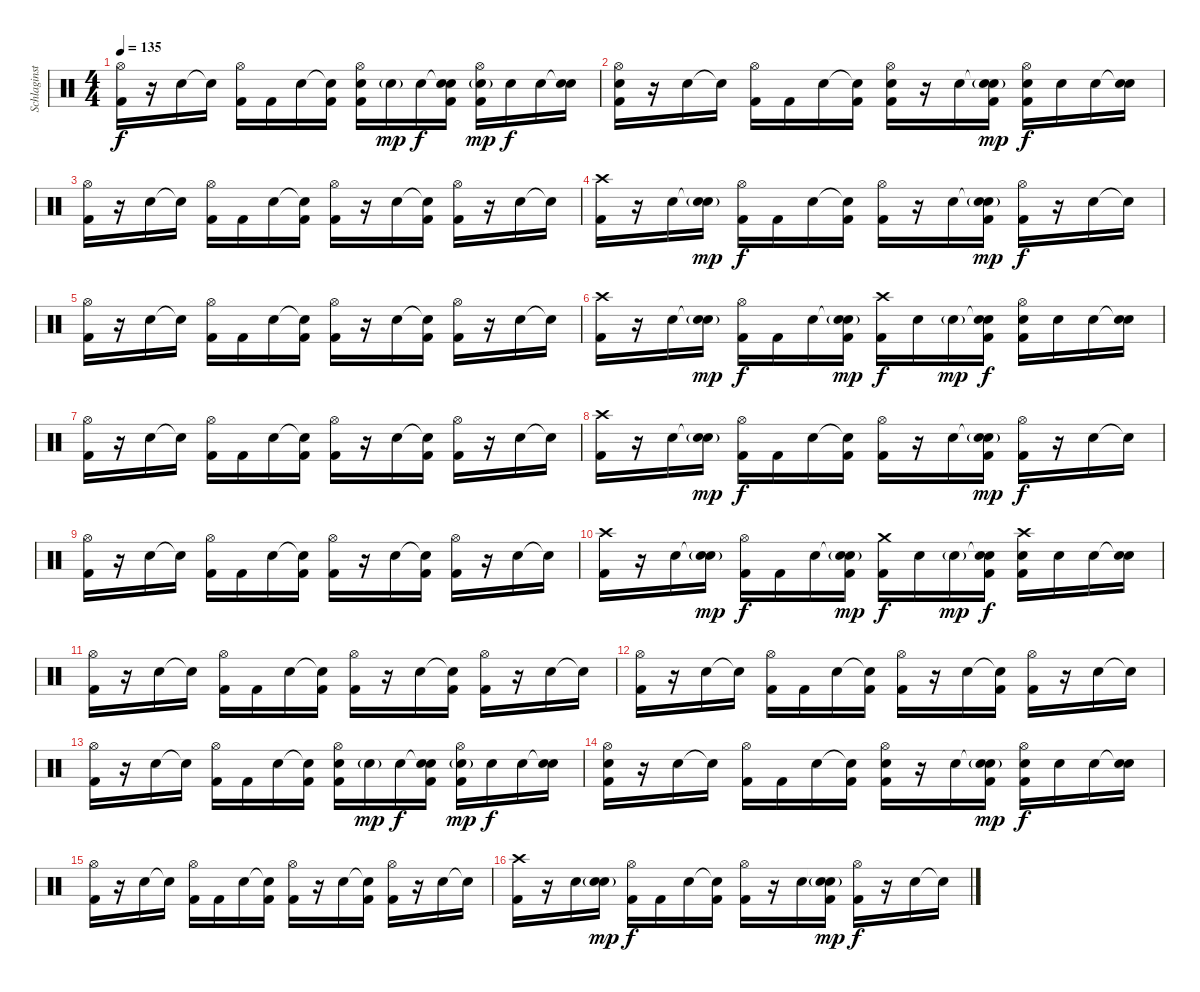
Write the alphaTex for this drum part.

\track ("Schlaginstrumente - Auswahl" "Schlaginst") {instrument percussion}
\staff {score}
\articulation defaults
\ts (4 4)
\tempo 135
\clef neutral
\ks c
("Hi-Hat (open)" "Kick (hit) 2").16{dy f} r.16 "Snare (hit) 2".16 "Snare (hit)"{t}.16 ("Hi-Hat (open)" "Kick (hit) 2").16 "Kick (hit) 2".16 "Snare (hit) 2".16 ("Snare (hit)"{t} "Kick (hit) 2").16 ("Hi-Hat (open)" "Snare (hit) 2" "Kick (hit) 2").16 "Snare (hit) 2"{g}.16{dy mp} "Snare (hit) 2".16{dy f} ("Snare (hit)"{t} "Snare (hit) 2" "Kick (hit) 2").16 ("Hi-Hat (open)" "Snare (hit) 2"{g} "Kick (hit) 2").16{dy mp} "Snare (hit) 2".16{dy f} "Snare (hit) 2".16 ("Snare (hit)"{t} "Snare (hit) 2").16 |
("Hi-Hat (open)" "Snare (hit) 2" "Kick (hit) 2").16 r.16 "Snare (hit) 2".16 "Snare (hit)"{t}.16 ("Hi-Hat (open)" "Kick (hit) 2").16 "Kick (hit) 2".16 "Snare (hit) 2".16 ("Snare (hit)"{t} "Kick (hit) 2").16 ("Hi-Hat (open)" "Snare (hit) 2" "Kick (hit) 2").16 r.16 "Snare (hit) 2".16 ("Snare (hit)"{t} "Snare (hit) 2"{g} "Kick (hit) 2").16{dy mp} ("Hi-Hat (open)" "Snare (hit) 2" "Kick (hit) 2").16{dy f} "Snare (hit) 2".16 "Snare (hit) 2".16 ("Snare (hit)"{t} "Snare (hit) 2").16 |
("Hi-Hat (open)" "Kick (hit) 2").16 r.16 "Snare (hit) 2".16 "Snare (hit)"{t}.16 ("Hi-Hat (open)" "Kick (hit) 2").16 "Kick (hit) 2".16 "Snare (hit) 2".16 ("Snare (hit)"{t} "Kick (hit) 2").16 ("Hi-Hat (open)" "Kick (hit) 2").16 r.16 "Snare (hit) 2".16 ("Snare (hit)"{t} "Kick (hit) 2").16 ("Hi-Hat (open)" "Kick (hit) 2").16 r.16 "Snare (hit) 2".16 "Snare (hit)"{t}.16 |
("Crash high (hit)" "Kick (hit) 2").16 r.16 "Snare (hit) 2".16 ("Snare (hit)"{t} "Snare (hit) 2"{g}).16{dy mp} ("Hi-Hat (open)" "Kick (hit) 2").16{dy f} "Kick (hit) 2".16 "Snare (hit) 2".16 ("Snare (hit)"{t} "Kick (hit) 2").16 ("Hi-Hat (open)" "Kick (hit) 2").16 r.16 "Snare (hit) 2".16 ("Snare (hit)"{t} "Snare (hit) 2"{g} "Kick (hit) 2").16{dy mp} ("Hi-Hat (open)" "Kick (hit) 2").16{dy f} r.16 "Snare (hit) 2".16 "Snare (hit)"{t}.16 |
("Hi-Hat (open)" "Kick (hit) 2").16 r.16 "Snare (hit) 2".16 "Snare (hit)"{t}.16 ("Hi-Hat (open)" "Kick (hit) 2").16 "Kick (hit) 2".16 "Snare (hit) 2".16 ("Snare (hit)"{t} "Kick (hit) 2").16 ("Hi-Hat (open)" "Kick (hit) 2").16 r.16 "Snare (hit) 2".16 ("Snare (hit)"{t} "Kick (hit) 2").16 ("Hi-Hat (open)" "Kick (hit) 2").16 r.16 "Snare (hit) 2".16 "Snare (hit)"{t}.16 |
("Crash high (hit)" "Kick (hit) 2").16 r.16 "Snare (hit) 2".16 ("Snare (hit)"{t} "Snare (hit) 2"{g}).16{dy mp} ("Hi-Hat (open)" "Kick (hit) 2").16{dy f} "Kick (hit) 2".16 "Snare (hit) 2".16 ("Snare (hit)"{t} "Snare (hit) 2"{g} "Kick (hit) 2").16{dy mp} ("Crash high (hit)" "Kick (hit) 2").16{dy f} "Snare (hit) 2".16 "Snare (hit) 2"{g}.16{dy mp} ("Snare (hit)"{t} "Snare (hit) 2" "Kick (hit) 2").16{dy f} ("Hi-Hat (open)" "Snare (hit) 2" "Kick (hit) 2").16 "Snare (hit) 2".16 "Snare (hit) 2".16 ("Snare (hit)"{t} "Snare (hit) 2").16 |
("Hi-Hat (open)" "Kick (hit) 2").16 r.16 "Snare (hit) 2".16 "Snare (hit)"{t}.16 ("Hi-Hat (open)" "Kick (hit) 2").16 "Kick (hit) 2".16 "Snare (hit) 2".16 ("Snare (hit)"{t} "Kick (hit) 2").16 ("Hi-Hat (open)" "Kick (hit) 2").16 r.16 "Snare (hit) 2".16 ("Snare (hit)"{t} "Kick (hit) 2").16 ("Hi-Hat (open)" "Kick (hit) 2").16 r.16 "Snare (hit) 2".16 "Snare (hit)"{t}.16 |
("Crash high (hit)" "Kick (hit) 2").16 r.16 "Snare (hit) 2".16 ("Snare (hit)"{t} "Snare (hit) 2"{g}).16{dy mp} ("Hi-Hat (open)" "Kick (hit) 2").16{dy f} "Kick (hit) 2".16 "Snare (hit) 2".16 ("Snare (hit)"{t} "Kick (hit) 2").16 ("Hi-Hat (open)" "Kick (hit) 2").16 r.16 "Snare (hit) 2".16 ("Snare (hit)"{t} "Snare (hit) 2"{g} "Kick (hit) 2").16{dy mp} ("Hi-Hat (open)" "Kick (hit) 2").16{dy f} r.16 "Snare (hit) 2".16 "Snare (hit)"{t}.16 |
("Hi-Hat (open)" "Kick (hit) 2").16 r.16 "Snare (hit) 2".16 "Snare (hit)"{t}.16 ("Hi-Hat (open)" "Kick (hit) 2").16 "Kick (hit) 2".16 "Snare (hit) 2".16 ("Snare (hit)"{t} "Kick (hit) 2").16 ("Hi-Hat (open)" "Kick (hit) 2").16 r.16 "Snare (hit) 2".16 ("Snare (hit)"{t} "Kick (hit) 2").16 ("Hi-Hat (open)" "Kick (hit) 2").16 r.16 "Snare (hit) 2".16 "Snare (hit)"{t}.16 |
("Crash high (hit)" "Kick (hit) 2").16 r.16 "Snare (hit) 2".16 ("Snare (hit)"{t} "Snare (hit) 2"{g}).16{dy mp} ("Hi-Hat (open)" "Kick (hit) 2").16{dy f} "Kick (hit) 2".16 "Snare (hit) 2".16 ("Snare (hit)"{t} "Snare (hit) 2"{g} "Kick (hit) 2").16{dy mp} ("Crash medium (hit)" "Kick (hit) 2").16{dy f} "Snare (hit) 2".16 "Snare (hit) 2"{g}.16{dy mp} ("Snare (hit)"{t} "Snare (hit) 2" "Kick (hit) 2").16{dy f} ("Crash high (hit)" "Snare (hit) 2" "Kick (hit) 2").16 "Snare (hit) 2".16 "Snare (hit) 2".16 ("Snare (hit)"{t} "Snare (hit) 2").16 |
("Hi-Hat (open)" "Kick (hit) 2").16 r.16 "Snare (hit) 2".16 "Snare (hit)"{t}.16 ("Hi-Hat (open)" "Kick (hit) 2").16 "Kick (hit) 2".16 "Snare (hit) 2".16 ("Snare (hit)"{t} "Kick (hit) 2").16 ("Hi-Hat (open)" "Kick (hit) 2").16 r.16 "Snare (hit) 2".16 ("Snare (hit)"{t} "Kick (hit) 2").16 ("Hi-Hat (open)" "Kick (hit) 2").16 r.16 "Snare (hit) 2".16 "Snare (hit)"{t}.16 |
("Hi-Hat (open)" "Kick (hit) 2").16 r.16 "Snare (hit) 2".16 "Snare (hit)"{t}.16 ("Hi-Hat (open)" "Kick (hit) 2").16 "Kick (hit) 2".16 "Snare (hit) 2".16 ("Snare (hit)"{t} "Kick (hit) 2").16 ("Hi-Hat (open)" "Kick (hit) 2").16 r.16 "Snare (hit) 2".16 ("Snare (hit)"{t} "Kick (hit) 2").16 ("Hi-Hat (open)" "Kick (hit) 2").16 r.16 "Snare (hit) 2".16 "Snare (hit)"{t}.16 |
("Hi-Hat (open)" "Kick (hit) 2").16 r.16 "Snare (hit) 2".16 "Snare (hit)"{t}.16 ("Hi-Hat (open)" "Kick (hit) 2").16 "Kick (hit) 2".16 "Snare (hit) 2".16 ("Snare (hit)"{t} "Kick (hit) 2").16 ("Hi-Hat (open)" "Snare (hit) 2" "Kick (hit) 2").16 "Snare (hit) 2"{g}.16{dy mp} "Snare (hit) 2".16{dy f} ("Snare (hit)"{t} "Snare (hit) 2" "Kick (hit) 2").16 ("Hi-Hat (open)" "Snare (hit) 2"{g} "Kick (hit) 2").16{dy mp} "Snare (hit) 2".16{dy f} "Snare (hit) 2".16 ("Snare (hit)"{t} "Snare (hit) 2").16 |
("Hi-Hat (open)" "Snare (hit) 2" "Kick (hit) 2").16 r.16 "Snare (hit) 2".16 "Snare (hit)"{t}.16 ("Hi-Hat (open)" "Kick (hit) 2").16 "Kick (hit) 2".16 "Snare (hit) 2".16 ("Snare (hit)"{t} "Kick (hit) 2").16 ("Hi-Hat (open)" "Snare (hit) 2" "Kick (hit) 2").16 r.16 "Snare (hit) 2".16 ("Snare (hit)"{t} "Snare (hit) 2"{g} "Kick (hit) 2").16{dy mp} ("Hi-Hat (open)" "Snare (hit) 2" "Kick (hit) 2").16{dy f} "Snare (hit) 2".16 "Snare (hit) 2".16 ("Snare (hit)"{t} "Snare (hit) 2").16 |
("Hi-Hat (open)" "Kick (hit) 2").16 r.16 "Snare (hit) 2".16 "Snare (hit)"{t}.16 ("Hi-Hat (open)" "Kick (hit) 2").16 "Kick (hit) 2".16 "Snare (hit) 2".16 ("Snare (hit)"{t} "Kick (hit) 2").16 ("Hi-Hat (open)" "Kick (hit) 2").16 r.16 "Snare (hit) 2".16 ("Snare (hit)"{t} "Kick (hit) 2").16 ("Hi-Hat (open)" "Kick (hit) 2").16 r.16 "Snare (hit) 2".16 "Snare (hit)"{t}.16 |
("Crash high (hit)" "Kick (hit) 2").16 r.16 "Snare (hit) 2".16 ("Snare (hit)"{t} "Snare (hit) 2"{g}).16{dy mp} ("Hi-Hat (open)" "Kick (hit) 2").16{dy f} "Kick (hit) 2".16 "Snare (hit) 2".16 ("Snare (hit)"{t} "Kick (hit) 2").16 ("Hi-Hat (open)" "Kick (hit) 2").16 r.16 "Snare (hit) 2".16 ("Snare (hit)"{t} "Snare (hit) 2"{g} "Kick (hit) 2").16{dy mp} ("Hi-Hat (open)" "Kick (hit) 2").16{dy f} r.16 "Snare (hit) 2".16 "Snare (hit)"{t}.16
